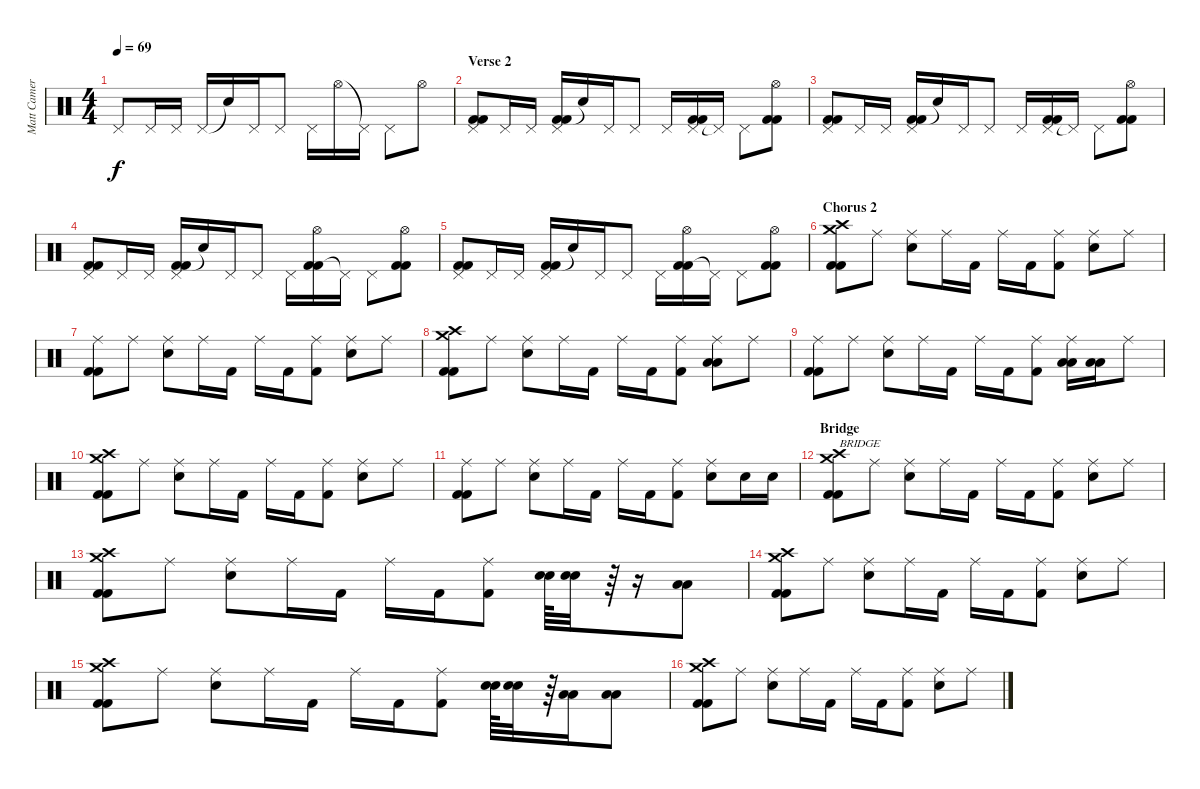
\track ("Matt Cameron" "Matt Camer") {instrument percussion}
\staff {score}
\articulation defaults
\ts (4 4)
\tempo 69
\clef neutral
\ks c "Pedal Hi-Hat (hit)".8{dy f} "Pedal Hi-Hat (hit)".16 "Pedal Hi-Hat (hit)".16 "Pedal Hi-Hat (hit)".16 "Snare (hit)"{t}.16 "Pedal Hi-Hat (hit)".16 "Pedal Hi-Hat (hit)".8 "Pedal Hi-Hat (hit)".16 "Hi-Hat (open)".16 "Pedal Hi-Hat (hit)"{t}.16 "Pedal Hi-Hat (hit)".8 "Hi-Hat (open)".8
|
\section ("" "Verse 2")
("Kick (hit) 2" "Kick (hit) 2" "Pedal Hi-Hat (hit)").8 "Pedal Hi-Hat (hit)".16 "Pedal Hi-Hat (hit)".16 ("Kick (hit) 2" "Kick (hit) 2" "Pedal Hi-Hat (hit)").16 "Snare (hit)"{t}.16 "Pedal Hi-Hat (hit)".16 "Pedal Hi-Hat (hit)".8 "Pedal Hi-Hat (hit)".16 ("Kick (hit) 2" "Kick (hit) 2" "Pedal Hi-Hat (hit)").16 "Pedal Hi-Hat (hit)"{t}.16 "Pedal Hi-Hat (hit)".8 ("Kick (hit) 2" "Kick (hit) 2" "Hi-Hat (open)").8 |
("Kick (hit) 2" "Kick (hit) 2" "Pedal Hi-Hat (hit)").8 "Pedal Hi-Hat (hit)".16 "Pedal Hi-Hat (hit)".16 ("Kick (hit) 2" "Kick (hit) 2" "Pedal Hi-Hat (hit)").16 "Snare (hit)"{t}.16 "Pedal Hi-Hat (hit)".16 "Pedal Hi-Hat (hit)".8 "Pedal Hi-Hat (hit)".16 ("Kick (hit) 2" "Kick (hit) 2" "Pedal Hi-Hat (hit)").16 "Pedal Hi-Hat (hit)"{t}.16 "Pedal Hi-Hat (hit)".8 ("Kick (hit) 2" "Kick (hit) 2" "Hi-Hat (open)").8 |
("Kick (hit) 2" "Kick (hit) 2" "Pedal Hi-Hat (hit)").8 "Pedal Hi-Hat (hit)".16 "Pedal Hi-Hat (hit)".16 ("Kick (hit) 2" "Kick (hit) 2" "Pedal Hi-Hat (hit)").16 "Snare (hit)"{t}.16 "Pedal Hi-Hat (hit)".16 "Pedal Hi-Hat (hit)".8 "Pedal Hi-Hat (hit)".16 ("Kick (hit) 2" "Kick (hit) 2" "Hi-Hat (open)").16 "Pedal Hi-Hat (hit)"{t}.16 "Pedal Hi-Hat (hit)".8 ("Kick (hit) 2" "Kick (hit) 2" "Hi-Hat (open)").8 |
("Kick (hit) 2" "Kick (hit) 2" "Pedal Hi-Hat (hit)").8 "Pedal Hi-Hat (hit)".16 "Pedal Hi-Hat (hit)".16 ("Kick (hit) 2" "Kick (hit) 2" "Pedal Hi-Hat (hit)").16 "Snare (hit)"{t}.16 "Pedal Hi-Hat (hit)".16 "Pedal Hi-Hat (hit)".8 "Pedal Hi-Hat (hit)".16 ("Kick (hit) 2" "Kick (hit) 2" "Hi-Hat (open)").16 "Pedal Hi-Hat (hit)"{t}.16 "Pedal Hi-Hat (hit)".8 ("Kick (hit) 2" "Kick (hit) 2" "Hi-Hat (open)").8 |
\section ("" "Chorus 2")
("Crash high (hit)" "Kick (hit) 2" "Kick (hit) 2" "Crash medium (hit)").8 "Ride (middle)".8 ("Electric Snare (hit)" "Ride (middle)").8 "Ride (middle)".16 "Kick (hit) 2".16 "Ride (middle)".16 "Kick (hit) 2".16 ("Kick (hit) 2" "Ride (middle)").8 ("Electric Snare (hit)" "Ride (middle)").8 "Ride (middle)".8 |
("Kick (hit) 2" "Kick (hit) 2" "Ride (middle)").8 "Ride (middle)".8 ("Electric Snare (hit)" "Ride (middle)").8 "Ride (middle)".16 "Kick (hit) 2".16 "Ride (middle)".16 "Kick (hit) 2".16 ("Kick (hit) 2" "Ride (middle)").8 ("Electric Snare (hit)" "Ride (middle)").8 "Ride (middle)".8 |
("Crash high (hit)" "Kick (hit) 2" "Kick (hit) 2" "Crash medium (hit)").8 "Ride (middle)".8 ("Electric Snare (hit)" "Ride (middle)").8 "Ride (middle)".16 "Kick (hit) 2".16 "Ride (middle)".16 "Kick (hit) 2".16 ("Kick (hit) 2" "Ride (middle)").8 ("Low Tom (hit)" "Low Tom (hit)" "Ride (middle)").8 "Ride (middle)".8 |
("Kick (hit) 2" "Kick (hit) 2" "Ride (middle)").8 "Ride (middle)".8 ("Electric Snare (hit)" "Ride (middle)").8 "Ride (middle)".16 "Kick (hit) 2".16 "Ride (middle)".16 "Kick (hit) 2".16 ("Kick (hit) 2" "Ride (middle)").8 ("Low Tom (hit)" "Low Tom (hit)" "Ride (middle)").16 ("Low Tom (hit)" "Low Tom (hit)").16 "Ride (middle)".8 |
("Crash high (hit)" "Kick (hit) 2" "Kick (hit) 2" "Crash medium (hit)").8 "Ride (middle)".8 ("Electric Snare (hit)" "Ride (middle)").8 "Ride (middle)".16 "Kick (hit) 2".16 "Ride (middle)".16 "Kick (hit) 2".16 ("Kick (hit) 2" "Ride (middle)").8 ("Electric Snare (hit)" "Ride (middle)").8 "Ride (middle)".8 |
("Kick (hit) 2" "Kick (hit) 2" "Ride (middle)").8 "Ride (middle)".8 ("Electric Snare (hit)" "Ride (middle)").8 "Ride (middle)".16 "Kick (hit) 2".16 "Ride (middle)".16 "Kick (hit) 2".16 ("Kick (hit) 2" "Ride (middle)").8 ("Electric Snare (hit)" "Ride (middle)").8 "Electric Snare (hit)".16 "Electric Snare (hit)".16 |
\section ("" "Bridge")
("Crash high (hit)" "Kick (hit) 2" "Kick (hit) 2" "Crash medium (hit)").8{txt "BRIDGE"} "Ride (middle)".8 ("Electric Snare (hit)" "Ride (middle)").8 "Ride (middle)".16 "Kick (hit) 2".16 "Ride (middle)".16 "Kick (hit) 2".16 ("Kick (hit) 2" "Ride (middle)").8 ("Electric Snare (hit)" "Ride (middle)").8 "Ride (middle)".8 |
("Crash high (hit)" "Kick (hit) 2" "Kick (hit) 2" "Crash medium (hit)").8 "Ride (middle)".8 ("Electric Snare (hit)" "Ride (middle)").8 "Ride (middle)".16 "Kick (hit) 2".16 "Ride (middle)".16 "Kick (hit) 2".16 ("Kick (hit) 2" "Ride (middle)").8 ("Electric Snare (hit)" "Electric Snare (hit)").64 ("Electric Snare (hit)" "Electric Snare (hit)").32 r.64 r.16 ("Low Tom (hit)" "Low Tom (hit)").8 |
("Crash high (hit)" "Kick (hit) 2" "Kick (hit) 2" "Crash medium (hit)").8 "Ride (middle)".8 ("Electric Snare (hit)" "Ride (middle)").8 "Ride (middle)".16 "Kick (hit) 2".16 "Ride (middle)".16 "Kick (hit) 2".16 ("Kick (hit) 2" "Ride (middle)").8 ("Electric Snare (hit)" "Ride (middle)").8 "Ride (middle)".8 |
("Crash high (hit)" "Kick (hit) 2" "Kick (hit) 2" "Crash medium (hit)").8 "Ride (middle)".8 ("Electric Snare (hit)" "Ride (middle)").8 "Ride (middle)".16 "Kick (hit) 2".16 "Ride (middle)".16 "Kick (hit) 2".16 ("Kick (hit) 2" "Ride (middle)").8 ("Electric Snare (hit)" "Electric Snare (hit)").64 ("Electric Snare (hit)" "Electric Snare (hit)").32 r.64 ("Low Tom (hit)" "Low Tom (hit)").16 ("Low Tom (hit)" "Low Tom (hit)").8 |
("Crash high (hit)" "Kick (hit) 2" "Kick (hit) 2" "Crash medium (hit)").8 "Ride (middle)".8 ("Electric Snare (hit)" "Ride (middle)").8 "Ride (middle)".16 "Kick (hit) 2".16 "Ride (middle)".16 "Kick (hit) 2".16 ("Kick (hit) 2" "Ride (middle)").8 ("Electric Snare (hit)" "Ride (middle)").8 "Ride (middle)".8
